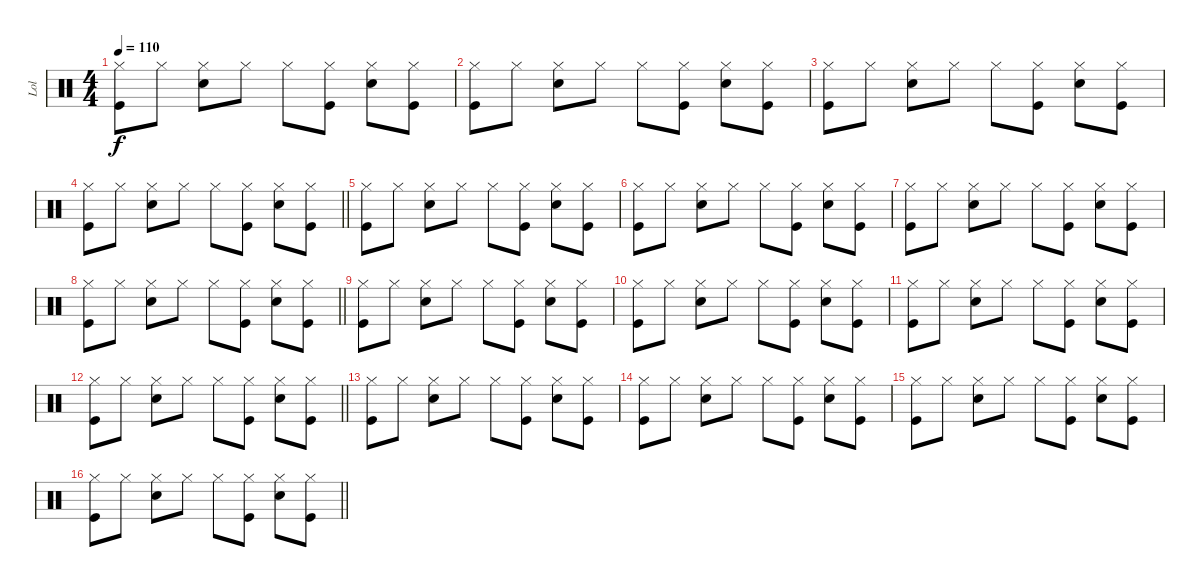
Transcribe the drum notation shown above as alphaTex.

\track ("Lol" "Lol") {instrument percussion}
\staff {score}
\articulation defaults
\ts (4 4)
\tempo 110
\clef neutral
\ks c
("Hi-Hat (closed)" "Kick (hit)").8{dy f} "Hi-Hat (closed)".8 ("Hi-Hat (closed)" "Electric Snare (hit)").8 "Hi-Hat (closed)".8 "Hi-Hat (closed)".8 ("Hi-Hat (closed)" "Kick (hit)").8 ("Hi-Hat (closed)" "Electric Snare (hit)").8 ("Hi-Hat (closed)" "Kick (hit)").8 |
("Hi-Hat (closed)" "Kick (hit)").8 "Hi-Hat (closed)".8 ("Hi-Hat (closed)" "Electric Snare (hit)").8 "Hi-Hat (closed)".8 "Hi-Hat (closed)".8 ("Hi-Hat (closed)" "Kick (hit)").8 ("Hi-Hat (closed)" "Electric Snare (hit)").8 ("Hi-Hat (closed)" "Kick (hit)").8 |
("Hi-Hat (closed)" "Kick (hit)").8 "Hi-Hat (closed)".8 ("Hi-Hat (closed)" "Electric Snare (hit)").8 "Hi-Hat (closed)".8 "Hi-Hat (closed)".8 ("Hi-Hat (closed)" "Kick (hit)").8 ("Hi-Hat (closed)" "Electric Snare (hit)").8 ("Hi-Hat (closed)" "Kick (hit)").8 |
\barLineRight lightlight
("Hi-Hat (closed)" "Kick (hit)").8 "Hi-Hat (closed)".8 ("Hi-Hat (closed)" "Electric Snare (hit)").8 "Hi-Hat (closed)".8 "Hi-Hat (closed)".8 ("Hi-Hat (closed)" "Kick (hit)").8 ("Hi-Hat (closed)" "Electric Snare (hit)").8 ("Hi-Hat (closed)" "Kick (hit)").8 |
("Hi-Hat (closed)" "Kick (hit)").8 "Hi-Hat (closed)".8 ("Hi-Hat (closed)" "Electric Snare (hit)").8 "Hi-Hat (closed)".8 "Hi-Hat (closed)".8 ("Hi-Hat (closed)" "Kick (hit)").8 ("Hi-Hat (closed)" "Electric Snare (hit)").8 ("Hi-Hat (closed)" "Kick (hit)").8 |
("Hi-Hat (closed)" "Kick (hit)").8 "Hi-Hat (closed)".8 ("Hi-Hat (closed)" "Electric Snare (hit)").8 "Hi-Hat (closed)".8 "Hi-Hat (closed)".8 ("Hi-Hat (closed)" "Kick (hit)").8 ("Hi-Hat (closed)" "Electric Snare (hit)").8 ("Hi-Hat (closed)" "Kick (hit)").8 |
("Hi-Hat (closed)" "Kick (hit)").8 "Hi-Hat (closed)".8 ("Hi-Hat (closed)" "Electric Snare (hit)").8 "Hi-Hat (closed)".8 "Hi-Hat (closed)".8 ("Hi-Hat (closed)" "Kick (hit)").8 ("Hi-Hat (closed)" "Electric Snare (hit)").8 ("Hi-Hat (closed)" "Kick (hit)").8 |
\barLineRight lightlight
("Hi-Hat (closed)" "Kick (hit)").8 "Hi-Hat (closed)".8 ("Hi-Hat (closed)" "Electric Snare (hit)").8 "Hi-Hat (closed)".8 "Hi-Hat (closed)".8 ("Hi-Hat (closed)" "Kick (hit)").8 ("Hi-Hat (closed)" "Electric Snare (hit)").8 ("Hi-Hat (closed)" "Kick (hit)").8 |
("Hi-Hat (closed)" "Kick (hit)").8 "Hi-Hat (closed)".8 ("Hi-Hat (closed)" "Electric Snare (hit)").8 "Hi-Hat (closed)".8 "Hi-Hat (closed)".8 ("Hi-Hat (closed)" "Kick (hit)").8 ("Hi-Hat (closed)" "Electric Snare (hit)").8 ("Hi-Hat (closed)" "Kick (hit)").8 |
("Hi-Hat (closed)" "Kick (hit)").8 "Hi-Hat (closed)".8 ("Hi-Hat (closed)" "Electric Snare (hit)").8 "Hi-Hat (closed)".8 "Hi-Hat (closed)".8 ("Hi-Hat (closed)" "Kick (hit)").8 ("Hi-Hat (closed)" "Electric Snare (hit)").8 ("Hi-Hat (closed)" "Kick (hit)").8 |
("Hi-Hat (closed)" "Kick (hit)").8 "Hi-Hat (closed)".8 ("Hi-Hat (closed)" "Electric Snare (hit)").8 "Hi-Hat (closed)".8 "Hi-Hat (closed)".8 ("Hi-Hat (closed)" "Kick (hit)").8 ("Hi-Hat (closed)" "Electric Snare (hit)").8 ("Hi-Hat (closed)" "Kick (hit)").8 |
\barLineRight lightlight
("Hi-Hat (closed)" "Kick (hit)").8 "Hi-Hat (closed)".8 ("Hi-Hat (closed)" "Electric Snare (hit)").8 "Hi-Hat (closed)".8 "Hi-Hat (closed)".8 ("Hi-Hat (closed)" "Kick (hit)").8 ("Hi-Hat (closed)" "Electric Snare (hit)").8 ("Hi-Hat (closed)" "Kick (hit)").8 |
("Hi-Hat (closed)" "Kick (hit)").8 "Hi-Hat (closed)".8 ("Hi-Hat (closed)" "Electric Snare (hit)").8 "Hi-Hat (closed)".8 "Hi-Hat (closed)".8 ("Hi-Hat (closed)" "Kick (hit)").8 ("Hi-Hat (closed)" "Electric Snare (hit)").8 ("Hi-Hat (closed)" "Kick (hit)").8 |
("Hi-Hat (closed)" "Kick (hit)").8 "Hi-Hat (closed)".8 ("Hi-Hat (closed)" "Electric Snare (hit)").8 "Hi-Hat (closed)".8 "Hi-Hat (closed)".8 ("Hi-Hat (closed)" "Kick (hit)").8 ("Hi-Hat (closed)" "Electric Snare (hit)").8 ("Hi-Hat (closed)" "Kick (hit)").8 |
("Hi-Hat (closed)" "Kick (hit)").8 "Hi-Hat (closed)".8 ("Hi-Hat (closed)" "Electric Snare (hit)").8 "Hi-Hat (closed)".8 "Hi-Hat (closed)".8 ("Hi-Hat (closed)" "Kick (hit)").8 ("Hi-Hat (closed)" "Electric Snare (hit)").8 ("Hi-Hat (closed)" "Kick (hit)").8 |
\barLineRight lightlight
("Hi-Hat (closed)" "Kick (hit)").8 "Hi-Hat (closed)".8 ("Hi-Hat (closed)" "Electric Snare (hit)").8 "Hi-Hat (closed)".8 "Hi-Hat (closed)".8 ("Hi-Hat (closed)" "Kick (hit)").8 ("Hi-Hat (closed)" "Electric Snare (hit)").8 ("Hi-Hat (closed)" "Kick (hit)").8
